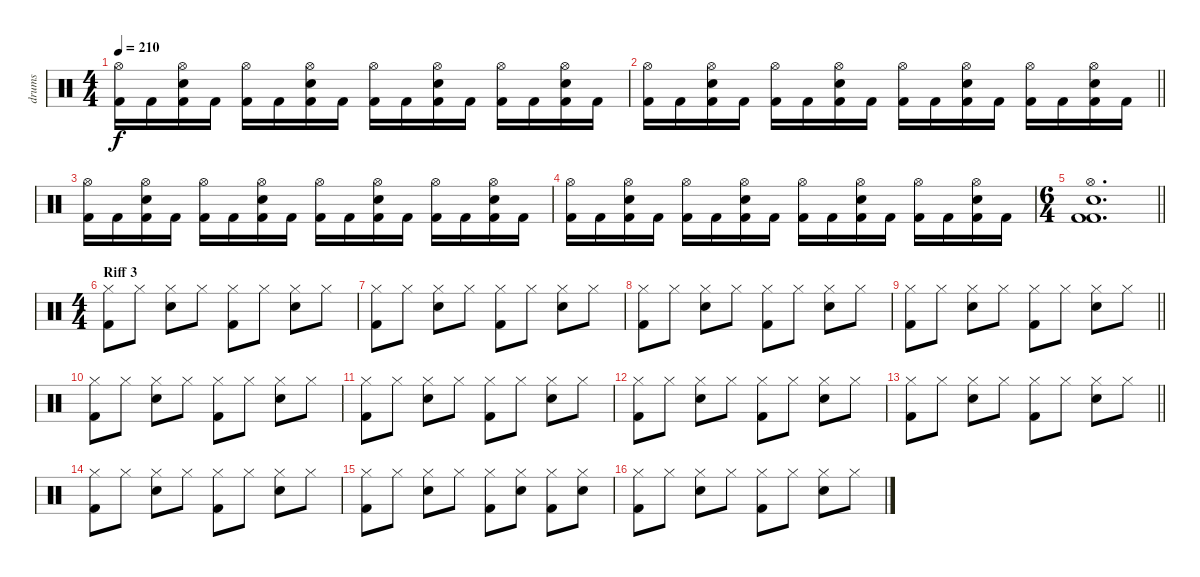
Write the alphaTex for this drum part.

\track ("drums" "drums") {instrument percussion}
\staff {score}
\articulation defaults
\ts (4 4)
\tempo 210
\clef neutral
\ks c
("Hi-Hat (open)" "Kick (hit) 2").16{dy f} "Kick (hit) 2".16 ("Hi-Hat (open)" "Electric Snare (hit)" "Kick (hit) 2").16 "Kick (hit) 2".16 ("Hi-Hat (open)" "Kick (hit) 2").16 "Kick (hit) 2".16 ("Hi-Hat (open)" "Electric Snare (hit)" "Kick (hit) 2").16 "Kick (hit) 2".16 ("Hi-Hat (open)" "Kick (hit) 2").16 "Kick (hit) 2".16 ("Hi-Hat (open)" "Electric Snare (hit)" "Kick (hit) 2").16 "Kick (hit) 2".16 ("Hi-Hat (open)" "Kick (hit) 2").16 "Kick (hit) 2".16 ("Hi-Hat (open)" "Electric Snare (hit)" "Kick (hit) 2").16 "Kick (hit) 2".16 |
\barLineRight lightlight
("Hi-Hat (open)" "Kick (hit) 2").16 "Kick (hit) 2".16 ("Hi-Hat (open)" "Electric Snare (hit)" "Kick (hit) 2").16 "Kick (hit) 2".16 ("Hi-Hat (open)" "Kick (hit) 2").16 "Kick (hit) 2".16 ("Hi-Hat (open)" "Electric Snare (hit)" "Kick (hit) 2").16 "Kick (hit) 2".16 ("Hi-Hat (open)" "Kick (hit) 2").16 "Kick (hit) 2".16 ("Hi-Hat (open)" "Electric Snare (hit)" "Kick (hit) 2").16 "Kick (hit) 2".16 ("Hi-Hat (open)" "Kick (hit) 2").16 "Kick (hit) 2".16 ("Hi-Hat (open)" "Electric Snare (hit)" "Kick (hit) 2").16 "Kick (hit) 2".16 |
("Hi-Hat (open)" "Kick (hit) 2").16 "Kick (hit) 2".16 ("Hi-Hat (open)" "Electric Snare (hit)" "Kick (hit) 2").16 "Kick (hit) 2".16 ("Hi-Hat (open)" "Kick (hit) 2").16 "Kick (hit) 2".16 ("Hi-Hat (open)" "Electric Snare (hit)" "Kick (hit) 2").16 "Kick (hit) 2".16 ("Hi-Hat (open)" "Kick (hit) 2").16 "Kick (hit) 2".16 ("Hi-Hat (open)" "Electric Snare (hit)" "Kick (hit) 2").16 "Kick (hit) 2".16 ("Hi-Hat (open)" "Kick (hit) 2").16 "Kick (hit) 2".16 ("Hi-Hat (open)" "Electric Snare (hit)" "Kick (hit) 2").16 "Kick (hit) 2".16 |
("Hi-Hat (open)" "Kick (hit) 2").16 "Kick (hit) 2".16 ("Hi-Hat (open)" "Electric Snare (hit)" "Kick (hit) 2").16 "Kick (hit) 2".16 ("Hi-Hat (open)" "Kick (hit) 2").16 "Kick (hit) 2".16 ("Hi-Hat (open)" "Electric Snare (hit)" "Kick (hit) 2").16 "Kick (hit) 2".16 ("Hi-Hat (open)" "Kick (hit) 2").16 "Kick (hit) 2".16 ("Hi-Hat (open)" "Electric Snare (hit)" "Kick (hit) 2").16 "Kick (hit) 2".16 ("Hi-Hat (open)" "Kick (hit) 2").16 "Kick (hit) 2".16 ("Hi-Hat (open)" "Electric Snare (hit)" "Kick (hit) 2").16 "Kick (hit) 2".16 |
\ts (6 4)
\barLineRight lightlight
("Hi-Hat (open)" "Electric Snare (hit)" "Kick (hit) 2" "Kick (hit) 2").1{d} |
\ts (4 4)
\section ("" "Riff 3")
("Hi-Hat (closed)" "Kick (hit) 2").8 "Hi-Hat (closed)".8 ("Hi-Hat (closed)" "Electric Snare (hit)").8 "Hi-Hat (closed)".8 ("Hi-Hat (closed)" "Kick (hit) 2").8 "Hi-Hat (closed)".8 ("Hi-Hat (closed)" "Electric Snare (hit)").8 "Hi-Hat (closed)".8 |
("Hi-Hat (closed)" "Kick (hit) 2").8 "Hi-Hat (closed)".8 ("Hi-Hat (closed)" "Electric Snare (hit)").8 "Hi-Hat (closed)".8 ("Hi-Hat (closed)" "Kick (hit) 2").8 "Hi-Hat (closed)".8 ("Hi-Hat (closed)" "Electric Snare (hit)").8 "Hi-Hat (closed)".8 |
("Hi-Hat (closed)" "Kick (hit) 2").8 "Hi-Hat (closed)".8 ("Hi-Hat (closed)" "Electric Snare (hit)").8 "Hi-Hat (closed)".8 ("Hi-Hat (closed)" "Kick (hit) 2").8 "Hi-Hat (closed)".8 ("Hi-Hat (closed)" "Electric Snare (hit)").8 "Hi-Hat (closed)".8 |
\barLineRight lightlight
("Hi-Hat (closed)" "Kick (hit) 2").8 "Hi-Hat (closed)".8 ("Hi-Hat (closed)" "Electric Snare (hit)").8 "Hi-Hat (closed)".8 ("Hi-Hat (closed)" "Kick (hit) 2").8 "Hi-Hat (closed)".8 ("Hi-Hat (closed)" "Electric Snare (hit)").8 "Hi-Hat (closed)".8 |
("Hi-Hat (closed)" "Kick (hit) 2").8 "Hi-Hat (closed)".8 ("Hi-Hat (closed)" "Electric Snare (hit)").8 "Hi-Hat (closed)".8 ("Hi-Hat (closed)" "Kick (hit) 2").8 "Hi-Hat (closed)".8 ("Hi-Hat (closed)" "Electric Snare (hit)").8 "Hi-Hat (closed)".8 |
("Hi-Hat (closed)" "Kick (hit) 2").8 "Hi-Hat (closed)".8 ("Hi-Hat (closed)" "Electric Snare (hit)").8 "Hi-Hat (closed)".8 ("Hi-Hat (closed)" "Kick (hit) 2").8 "Hi-Hat (closed)".8 ("Hi-Hat (closed)" "Electric Snare (hit)").8 "Hi-Hat (closed)".8 |
("Hi-Hat (closed)" "Kick (hit) 2").8 "Hi-Hat (closed)".8 ("Hi-Hat (closed)" "Electric Snare (hit)").8 "Hi-Hat (closed)".8 ("Hi-Hat (closed)" "Kick (hit) 2").8 "Hi-Hat (closed)".8 ("Hi-Hat (closed)" "Electric Snare (hit)").8 "Hi-Hat (closed)".8 |
\barLineRight lightlight
("Hi-Hat (closed)" "Kick (hit) 2").8 "Hi-Hat (closed)".8 ("Hi-Hat (closed)" "Electric Snare (hit)").8 "Hi-Hat (closed)".8 ("Hi-Hat (closed)" "Kick (hit) 2").8 "Hi-Hat (closed)".8 ("Hi-Hat (closed)" "Electric Snare (hit)").8 "Hi-Hat (closed)".8 |
("Hi-Hat (closed)" "Kick (hit) 2").8 "Hi-Hat (closed)".8 ("Hi-Hat (closed)" "Electric Snare (hit)").8 "Hi-Hat (closed)".8 ("Hi-Hat (closed)" "Kick (hit) 2").8 "Hi-Hat (closed)".8 ("Hi-Hat (closed)" "Electric Snare (hit)").8 "Hi-Hat (closed)".8 |
("Hi-Hat (closed)" "Kick (hit) 2").8 "Hi-Hat (closed)".8 ("Hi-Hat (closed)" "Electric Snare (hit)").8 "Hi-Hat (closed)".8 ("Hi-Hat (closed)" "Kick (hit) 2").8 ("Hi-Hat (closed)" "Electric Snare (hit)").8 ("Hi-Hat (closed)" "Kick (hit) 2").8 ("Hi-Hat (closed)" "Electric Snare (hit)").8 |
("Hi-Hat (closed)" "Kick (hit) 2").8 "Hi-Hat (closed)".8 ("Hi-Hat (closed)" "Electric Snare (hit)").8 "Hi-Hat (closed)".8 ("Hi-Hat (closed)" "Kick (hit) 2").8 "Hi-Hat (closed)".8 ("Hi-Hat (closed)" "Electric Snare (hit)").8 "Hi-Hat (closed)".8
